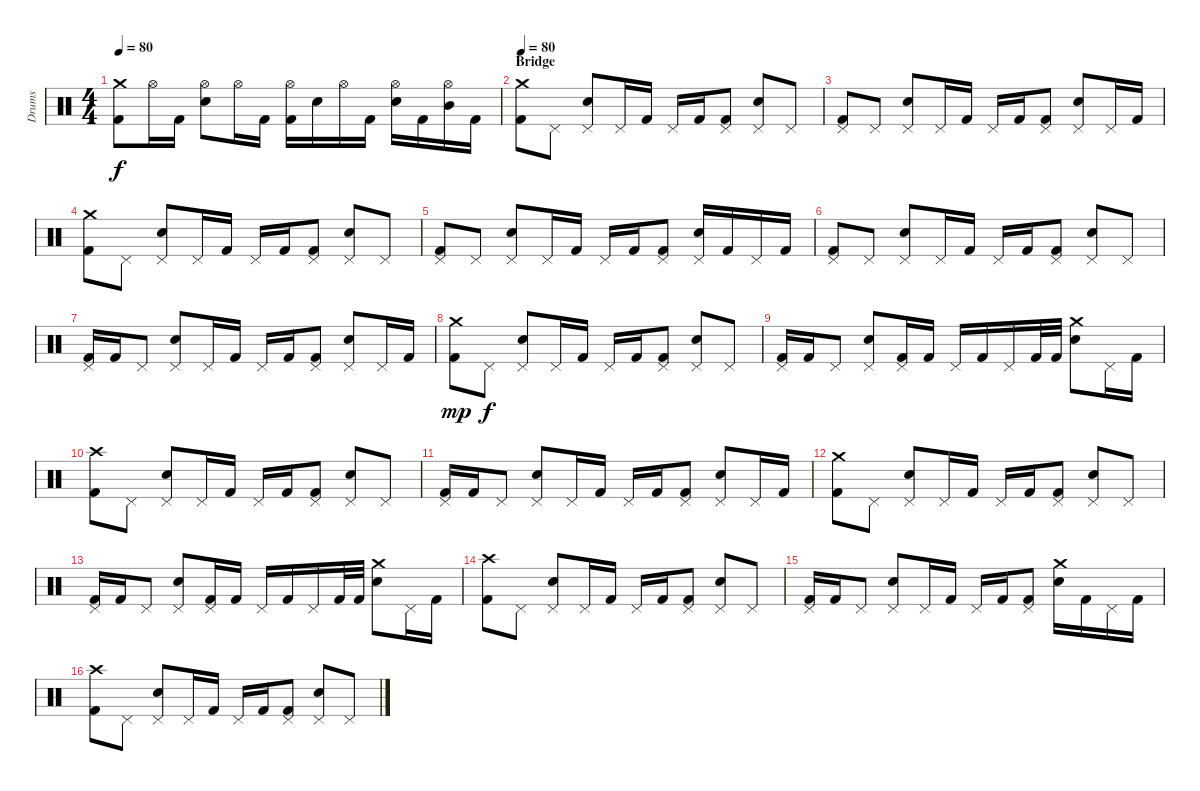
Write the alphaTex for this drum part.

\track ("Drums" "Drums") {instrument percussion}
\staff {score}
\articulation defaults
\ts (4 4)
\tempo 80
\clef neutral
\ks c
("Crash medium (hit)" "Kick (hit) 2").8{dy f} "Hi-Hat (open)".16 "Kick (hit) 2".16 ("Hi-Hat (open)" "Electric Snare (hit)").8 "Hi-Hat (open)".16 "Kick (hit) 2".16 ("Hi-Hat (open)" "Kick (hit) 2").16 "Electric Snare (hit)".16 "Hi-Hat (open)".16 "Kick (hit) 2".16 ("Hi-Hat (open)" "Electric Snare (hit)").16 "Kick (hit) 2".16 ("Hi-Hat (open)" "Mid Tom (hit)").16 "Kick (hit) 2".16 |
\section ("" "Bridge")
\tempo 80
("Crash medium (hit)" "Kick (hit) 2").8 "Pedal Hi-Hat (hit)".8 ("Pedal Hi-Hat (hit)" "Electric Snare (hit)").8 "Pedal Hi-Hat (hit)".16 "Kick (hit) 2".16 "Pedal Hi-Hat (hit)".16 "Kick (hit) 2".16 ("Pedal Hi-Hat (hit)" "Kick (hit) 2").8 ("Pedal Hi-Hat (hit)" "Electric Snare (hit)").8 "Pedal Hi-Hat (hit)".8 |
("Pedal Hi-Hat (hit)" "Kick (hit) 2").8 "Pedal Hi-Hat (hit)".8 ("Pedal Hi-Hat (hit)" "Electric Snare (hit)").8 "Pedal Hi-Hat (hit)".16 "Kick (hit) 2".16 "Pedal Hi-Hat (hit)".16 "Kick (hit) 2".16 ("Pedal Hi-Hat (hit)" "Kick (hit) 2").8 ("Pedal Hi-Hat (hit)" "Electric Snare (hit)").8 "Pedal Hi-Hat (hit)".16 "Kick (hit) 2".16 |
("Crash medium (hit)" "Kick (hit) 2").8 "Pedal Hi-Hat (hit)".8 ("Pedal Hi-Hat (hit)" "Electric Snare (hit)").8 "Pedal Hi-Hat (hit)".16 "Kick (hit) 2".16 "Pedal Hi-Hat (hit)".16 "Kick (hit) 2".16 ("Pedal Hi-Hat (hit)" "Kick (hit) 2").8 ("Pedal Hi-Hat (hit)" "Electric Snare (hit)").8 "Pedal Hi-Hat (hit)".8 |
("Pedal Hi-Hat (hit)" "Kick (hit) 2").8 "Pedal Hi-Hat (hit)".8 ("Pedal Hi-Hat (hit)" "Electric Snare (hit)").8 "Pedal Hi-Hat (hit)".16 "Kick (hit) 2".16 "Pedal Hi-Hat (hit)".16 "Kick (hit) 2".16 ("Pedal Hi-Hat (hit)" "Kick (hit) 2").8 ("Pedal Hi-Hat (hit)" "Electric Snare (hit)").16 "Kick (hit) 2".16 "Pedal Hi-Hat (hit)".16 "Kick (hit) 2".16 |
("Pedal Hi-Hat (hit)" "Kick (hit) 2").8 "Pedal Hi-Hat (hit)".8 ("Pedal Hi-Hat (hit)" "Electric Snare (hit)").8 "Pedal Hi-Hat (hit)".16 "Kick (hit) 2".16 "Pedal Hi-Hat (hit)".16 "Kick (hit) 2".16 ("Pedal Hi-Hat (hit)" "Kick (hit) 2").8 ("Pedal Hi-Hat (hit)" "Electric Snare (hit)").8 "Pedal Hi-Hat (hit)".8 |
("Pedal Hi-Hat (hit)" "Kick (hit) 2").16 "Kick (hit) 2".16 "Pedal Hi-Hat (hit)".8 ("Pedal Hi-Hat (hit)" "Electric Snare (hit)").8 "Pedal Hi-Hat (hit)".16 "Kick (hit) 2".16 "Pedal Hi-Hat (hit)".16 "Kick (hit) 2".16 ("Pedal Hi-Hat (hit)" "Kick (hit) 2").8 ("Pedal Hi-Hat (hit)" "Electric Snare (hit)").8 "Pedal Hi-Hat (hit)".16 "Kick (hit) 2".16 |
("Crash medium (hit)" "Kick (hit) 2").8{dy mp} "Pedal Hi-Hat (hit)".8{dy f} ("Pedal Hi-Hat (hit)" "Electric Snare (hit)").8 "Pedal Hi-Hat (hit)".16 "Kick (hit) 2".16 "Pedal Hi-Hat (hit)".16 "Kick (hit) 2".16 ("Pedal Hi-Hat (hit)" "Kick (hit) 2").8 ("Pedal Hi-Hat (hit)" "Electric Snare (hit)").8 "Pedal Hi-Hat (hit)".8 |
("Pedal Hi-Hat (hit)" "Kick (hit) 2").16 "Kick (hit) 2".16 "Pedal Hi-Hat (hit)".8 ("Pedal Hi-Hat (hit)" "Electric Snare (hit)").8 ("Pedal Hi-Hat (hit)" "Kick (hit) 2").16 "Kick (hit) 2".16 "Pedal Hi-Hat (hit)".16 "Kick (hit) 2".16 "Pedal Hi-Hat (hit)".16 "Kick (hit) 2".32 "Kick (hit) 2".32 ("Crash medium (hit)" "Electric Snare (hit)").8 "Pedal Hi-Hat (hit)".16 "Kick (hit) 2".16 |
("Crash high (hit)" "Kick (hit) 2").8 "Pedal Hi-Hat (hit)".8 ("Pedal Hi-Hat (hit)" "Electric Snare (hit)").8 "Pedal Hi-Hat (hit)".16 "Kick (hit) 2".16 "Pedal Hi-Hat (hit)".16 "Kick (hit) 2".16 ("Pedal Hi-Hat (hit)" "Kick (hit) 2").8 ("Pedal Hi-Hat (hit)" "Electric Snare (hit)").8 "Pedal Hi-Hat (hit)".8 |
("Pedal Hi-Hat (hit)" "Kick (hit) 2").16 "Kick (hit) 2".16 "Pedal Hi-Hat (hit)".8 ("Pedal Hi-Hat (hit)" "Electric Snare (hit)").8 "Pedal Hi-Hat (hit)".16 "Kick (hit) 2".16 "Pedal Hi-Hat (hit)".16 "Kick (hit) 2".16 ("Pedal Hi-Hat (hit)" "Kick (hit) 2").8 ("Pedal Hi-Hat (hit)" "Electric Snare (hit)").8 "Pedal Hi-Hat (hit)".16 "Kick (hit) 2".16 |
("Crash medium (hit)" "Kick (hit) 2").8 "Pedal Hi-Hat (hit)".8 ("Pedal Hi-Hat (hit)" "Electric Snare (hit)").8 "Pedal Hi-Hat (hit)".16 "Kick (hit) 2".16 "Pedal Hi-Hat (hit)".16 "Kick (hit) 2".16 ("Pedal Hi-Hat (hit)" "Kick (hit) 2").8 ("Pedal Hi-Hat (hit)" "Electric Snare (hit)").8 "Pedal Hi-Hat (hit)".8 |
("Pedal Hi-Hat (hit)" "Kick (hit) 2").16 "Kick (hit) 2".16 "Pedal Hi-Hat (hit)".8 ("Pedal Hi-Hat (hit)" "Electric Snare (hit)").8 ("Pedal Hi-Hat (hit)" "Kick (hit) 2").16 "Kick (hit) 2".16 "Pedal Hi-Hat (hit)".16 "Kick (hit) 2".16 "Pedal Hi-Hat (hit)".16 "Kick (hit) 2".32 "Kick (hit) 2".32 ("Crash medium (hit)" "Electric Snare (hit)").8 "Pedal Hi-Hat (hit)".16 "Kick (hit) 2".16 |
("Crash high (hit)" "Kick (hit) 2").8 "Pedal Hi-Hat (hit)".8 ("Pedal Hi-Hat (hit)" "Electric Snare (hit)").8 "Pedal Hi-Hat (hit)".16 "Kick (hit) 2".16 "Pedal Hi-Hat (hit)".16 "Kick (hit) 2".16 ("Pedal Hi-Hat (hit)" "Kick (hit) 2").8 ("Pedal Hi-Hat (hit)" "Electric Snare (hit)").8 "Pedal Hi-Hat (hit)".8 |
("Pedal Hi-Hat (hit)" "Kick (hit) 2").16 "Kick (hit) 2".16 "Pedal Hi-Hat (hit)".8 ("Pedal Hi-Hat (hit)" "Electric Snare (hit)").8 "Pedal Hi-Hat (hit)".16 "Kick (hit) 2".16 "Pedal Hi-Hat (hit)".16 "Kick (hit) 2".16 ("Pedal Hi-Hat (hit)" "Kick (hit) 2").8 ("Crash medium (hit)" "Electric Snare (hit)").16 "Kick (hit) 2".16 "Pedal Hi-Hat (hit)".16 "Kick (hit) 2".16 |
("Crash high (hit)" "Kick (hit) 2").8 "Pedal Hi-Hat (hit)".8 ("Pedal Hi-Hat (hit)" "Electric Snare (hit)").8 "Pedal Hi-Hat (hit)".16 "Kick (hit) 2".16 "Pedal Hi-Hat (hit)".16 "Kick (hit) 2".16 ("Pedal Hi-Hat (hit)" "Kick (hit) 2").8 ("Pedal Hi-Hat (hit)" "Electric Snare (hit)").8 "Pedal Hi-Hat (hit)".8
